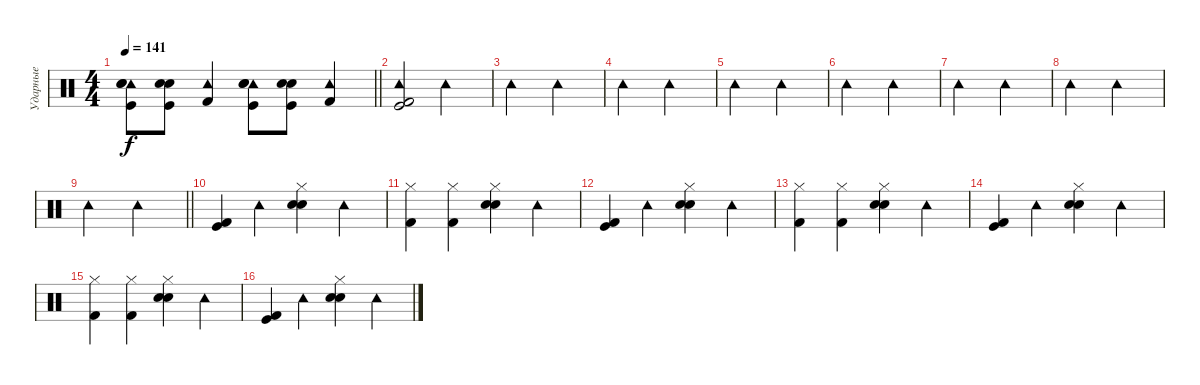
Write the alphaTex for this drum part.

\track ("Ударные" "Ударные") {instrument percussion}
\staff {score}
\articulation defaults
\ts (4 4)
\tempo 141
\clef neutral
\barLineRight lightlight
\ks c
("Tambourine (hit)" "Snare (hit) 2" "Kick (hit)" "Electric Snare (hit)").8{dy f} ("Snare (hit) 2" "Kick (hit)" "Electric Snare (hit)").8 ("Tambourine (hit)" "Kick (hit) 2").4 ("Tambourine (hit)" "Snare (hit) 2" "Kick (hit)" "Electric Snare (hit)").8 ("Snare (hit) 2" "Kick (hit)" "Electric Snare (hit)").8 ("Tambourine (hit)" "Kick (hit) 2").4 |
("Tambourine (hit)" "Kick (hit) 2" "Kick (hit)").2 "Tambourine (hit)".2 |
"Tambourine (hit)".2 "Tambourine (hit)".2 |
"Tambourine (hit)".2 "Tambourine (hit)".2 |
"Tambourine (hit)".2 "Tambourine (hit)".2 |
"Tambourine (hit)".2 "Tambourine (hit)".2 |
"Tambourine (hit)".2 "Tambourine (hit)".2 |
"Tambourine (hit)".2 "Tambourine (hit)".2 |
\barLineRight lightlight "Tambourine (hit)".2 "Tambourine (hit)".2
|
("Kick (hit)" "Kick (hit) 2").4 "Tambourine (hit)".4 ("Electric Snare (hit)" "Snare (hit) 2" "Hi-Hat (closed)").4 "Tambourine (hit)".4 |
("Kick (hit) 2" "Hi-Hat (closed)").4 ("Kick (hit) 2" "Hi-Hat (closed)").4 ("Electric Snare (hit)" "Snare (hit) 2" "Hi-Hat (closed)").4 "Tambourine (hit)".4 |
("Kick (hit)" "Kick (hit) 2").4 "Tambourine (hit)".4 ("Electric Snare (hit)" "Snare (hit) 2" "Hi-Hat (closed)").4 "Tambourine (hit)".4 |
("Kick (hit) 2" "Hi-Hat (closed)").4 ("Kick (hit) 2" "Hi-Hat (closed)").4 ("Electric Snare (hit)" "Snare (hit) 2" "Hi-Hat (closed)").4 "Tambourine (hit)".4 |
("Kick (hit)" "Kick (hit) 2").4 "Tambourine (hit)".4 ("Electric Snare (hit)" "Snare (hit) 2" "Hi-Hat (closed)").4 "Tambourine (hit)".4 |
("Kick (hit) 2" "Hi-Hat (closed)").4 ("Kick (hit) 2" "Hi-Hat (closed)").4 ("Electric Snare (hit)" "Snare (hit) 2" "Hi-Hat (closed)").4 "Tambourine (hit)".4 |
("Kick (hit) 2" "Kick (hit)").4 "Tambourine (hit)".4 ("Electric Snare (hit)" "Snare (hit) 2" "Hi-Hat (closed)").4 "Tambourine (hit)".4
